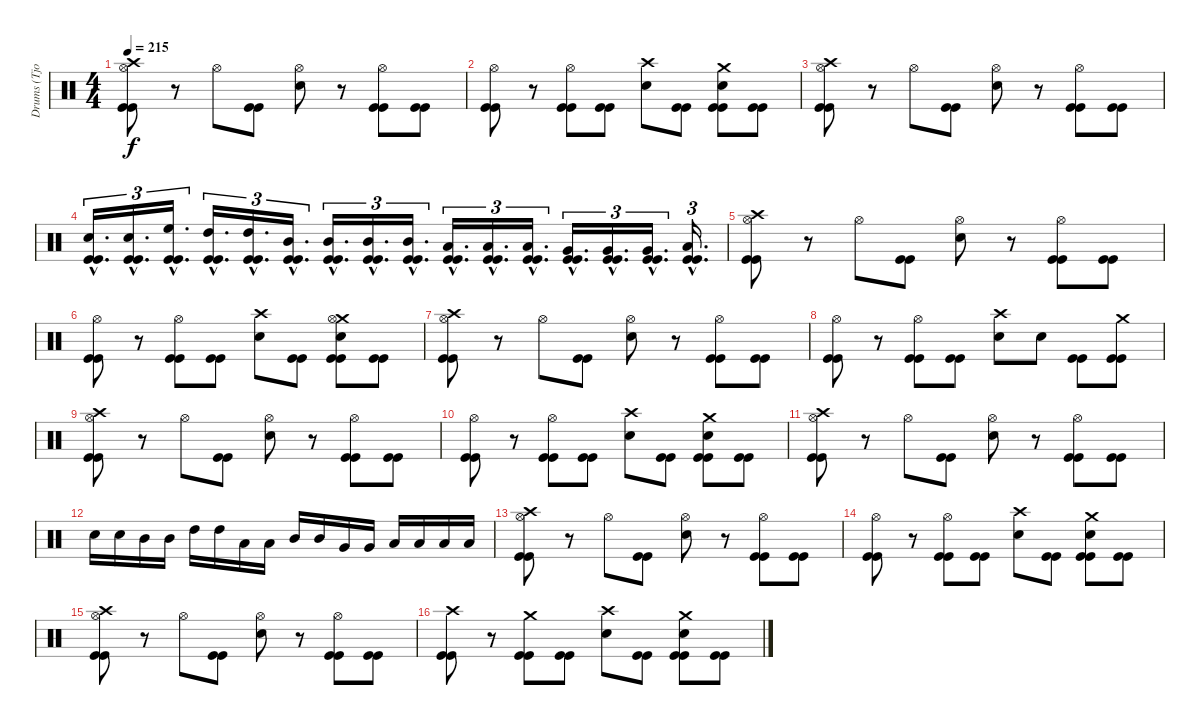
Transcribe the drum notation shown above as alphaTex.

\track ("Drums (Tjodalv)" "Drums (Tjo") {instrument percussion}
\staff {score}
\articulation defaults
\ts (4 4)
\tempo 215
\clef neutral
\ks c
("Crash high (hit)" "Hi-Hat (open)" "Kick (hit)" "Kick (hit)").8{dy f} r.8 "Hi-Hat (open)".8 ("Kick (hit)" "Kick (hit)").8 ("Snare (hit) 2" "Hi-Hat (open)").8 r.8 ("Hi-Hat (open)" "Kick (hit)" "Kick (hit)").8 ("Kick (hit)" "Kick (hit)").8 |
("Hi-Hat (open)" "Kick (hit)" "Kick (hit)").8 r.8 ("Hi-Hat (open)" "Kick (hit)" "Kick (hit)").8 ("Kick (hit)" "Kick (hit)").8 ("Crash high (hit)" "Snare (hit) 2").8 ("Kick (hit)" "Kick (hit)").8 ("Crash medium (hit)" "Snare (hit) 2" "Kick (hit)" "Kick (hit)").8 ("Kick (hit)" "Kick (hit)").8 |
("Crash high (hit)" "Hi-Hat (open)" "Kick (hit)" "Kick (hit)").8 r.8 "Hi-Hat (open)".8 ("Kick (hit)" "Kick (hit)").8 ("Snare (hit) 2" "Hi-Hat (open)").8 r.8 ("Hi-Hat (open)" "Kick (hit)" "Kick (hit)").8 ("Kick (hit)" "Kick (hit)").8 |
("Snare (hit) 2"{hac} "Kick (hit)"{hac} "Kick (hit)"{hac}).16{d tu (3 2)} ("Snare (hit) 2"{hac} "Kick (hit)"{hac} "Kick (hit)"{hac}).16{d tu (3 2)} ("High Floor Tom (hit)"{hac} "Kick (hit)"{hac} "Kick (hit)"{hac}).16{d tu (3 2)} ("High Tom (hit)"{hac} "Kick (hit)"{hac} "Kick (hit)"{hac}).16{d tu (3 2)} ("High Tom (hit)"{hac} "Kick (hit)"{hac} "Kick (hit)"{hac}).16{d tu (3 2)} ("Mid Tom (hit)"{hac} "Kick (hit)"{hac} "Kick (hit)"{hac}).16{d tu (3 2)} ("Mid Tom (hit)"{hac} "Kick (hit)"{hac} "Kick (hit)"{hac}).16{d tu (3 2)} ("Mid Tom (hit)"{hac} "Kick (hit)"{hac} "Kick (hit)"{hac}).16{d tu (3 2)} ("Mid Tom (hit)"{hac} "Kick (hit)"{hac} "Kick (hit)"{hac}).16{d tu (3 2)} ("Low Tom (hit)"{hac} "Kick (hit)"{hac} "Kick (hit)"{hac}).16{d tu (3 2)} ("Low Tom (hit)"{hac} "Kick (hit)"{hac} "Kick (hit)"{hac}).16{d tu (3 2)} ("Low Tom (hit)"{hac} "Kick (hit)"{hac} "Kick (hit)"{hac}).16{d tu (3 2)} ("Very Low Tom (hit)"{hac} "Kick (hit)"{hac} "Kick (hit)"{hac}).16{d tu (3 2)} ("Very Low Tom (hit)"{hac} "Kick (hit)"{hac} "Kick (hit)"{hac}).16{d tu (3 2)} ("Very Low Tom (hit)"{hac} "Kick (hit)"{hac} "Kick (hit)"{hac}).16{d tu (3 2)} ("Low Floor Tom (hit)"{hac} "Kick (hit)"{hac} "Kick (hit)"{hac}).16{d tu (3 2)} |
("Crash high (hit)" "Hi-Hat (open)" "Kick (hit)" "Kick (hit)").8 r.8 "Hi-Hat (open)".8 ("Kick (hit)" "Kick (hit)").8 ("Snare (hit) 2" "Hi-Hat (open)").8 r.8 ("Hi-Hat (open)" "Kick (hit)" "Kick (hit)").8 ("Kick (hit)" "Kick (hit)").8 |
("Hi-Hat (open)" "Kick (hit)" "Kick (hit)").8 r.8 ("Hi-Hat (open)" "Kick (hit)" "Kick (hit)").8 ("Kick (hit)" "Kick (hit)").8 ("Crash high (hit)" "Snare (hit) 2").8 ("Kick (hit)" "Kick (hit)").8 ("Crash medium (hit)" "Snare (hit) 2" "Hi-Hat (open)" "Kick (hit)" "Kick (hit)").8 ("Kick (hit)" "Kick (hit)").8 |
("Crash high (hit)" "Hi-Hat (open)" "Kick (hit)" "Kick (hit)").8 r.8 "Hi-Hat (open)".8 ("Kick (hit)" "Kick (hit)").8 ("Snare (hit) 2" "Hi-Hat (open)").8 r.8 ("Hi-Hat (open)" "Kick (hit)" "Kick (hit)").8 ("Kick (hit)" "Kick (hit)").8 |
("Hi-Hat (open)" "Kick (hit)" "Kick (hit)").8 r.8 ("Hi-Hat (open)" "Kick (hit)" "Kick (hit)").8 ("Kick (hit)" "Kick (hit)").8 ("Crash high (hit)" "Snare (hit) 2").8 "Snare (hit) 2".8 ("Kick (hit)" "Kick (hit)").8 ("Crash medium (hit)" "Kick (hit)" "Kick (hit)").8 |
("Crash high (hit)" "Hi-Hat (open)" "Kick (hit)" "Kick (hit)").8 r.8 "Hi-Hat (open)".8 ("Kick (hit)" "Kick (hit)").8 ("Snare (hit) 2" "Hi-Hat (open)").8 r.8 ("Hi-Hat (open)" "Kick (hit)" "Kick (hit)").8 ("Kick (hit)" "Kick (hit)").8 |
("Hi-Hat (open)" "Kick (hit)" "Kick (hit)").8 r.8 ("Hi-Hat (open)" "Kick (hit)" "Kick (hit)").8 ("Kick (hit)" "Kick (hit)").8 ("Crash high (hit)" "Snare (hit) 2").8 ("Kick (hit)" "Kick (hit)").8 ("Crash medium (hit)" "Snare (hit) 2" "Kick (hit)" "Kick (hit)").8 ("Kick (hit)" "Kick (hit)").8 |
("Crash high (hit)" "Hi-Hat (open)" "Kick (hit)" "Kick (hit)").8 r.8 "Hi-Hat (open)".8 ("Kick (hit)" "Kick (hit)").8 ("Snare (hit) 2" "Hi-Hat (open)").8 r.8 ("Hi-Hat (open)" "Kick (hit)" "Kick (hit)").8 ("Kick (hit)" "Kick (hit)").8 |
"Snare (hit) 2".16 "Snare (hit) 2".16 "Mid Tom (hit)".16 "Mid Tom (hit)".16 "High Tom (hit)".16 "High Tom (hit)".16 "Low Tom (hit)".16 "Low Tom (hit)".16 "Mid Tom (hit)".16 "Mid Tom (hit)".16 "Very Low Tom (hit)".16 "Very Low Tom (hit)".16 "Low Tom (hit)".16 "Low Tom (hit)".16 "Low Floor Tom (hit)".16 "Low Floor Tom (hit)".16 |
("Crash high (hit)" "Hi-Hat (open)" "Kick (hit)" "Kick (hit)").8 r.8 "Hi-Hat (open)".8 ("Kick (hit)" "Kick (hit)").8 ("Snare (hit) 2" "Hi-Hat (open)").8 r.8 ("Hi-Hat (open)" "Kick (hit)" "Kick (hit)").8 ("Kick (hit)" "Kick (hit)").8 |
("Hi-Hat (open)" "Kick (hit)" "Kick (hit)").8 r.8 ("Hi-Hat (open)" "Kick (hit)" "Kick (hit)").8 ("Kick (hit)" "Kick (hit)").8 ("Crash high (hit)" "Snare (hit) 2").8 ("Kick (hit)" "Kick (hit)").8 ("Crash medium (hit)" "Snare (hit) 2" "Kick (hit)" "Kick (hit)").8 ("Kick (hit)" "Kick (hit)").8 |
("Crash high (hit)" "Hi-Hat (open)" "Kick (hit)" "Kick (hit)").8 r.8 "Hi-Hat (open)".8 ("Kick (hit)" "Kick (hit)").8 ("Snare (hit) 2" "Hi-Hat (open)").8 r.8 ("Hi-Hat (open)" "Kick (hit)" "Kick (hit)").8 ("Kick (hit)" "Kick (hit)").8 |
("Crash high (hit)" "Kick (hit)" "Kick (hit)").8 r.8 ("Crash medium (hit)" "Kick (hit)" "Kick (hit)").8 ("Kick (hit)" "Kick (hit)").8 ("Crash high (hit)" "Snare (hit) 2").8 ("Kick (hit)" "Kick (hit)").8 ("Crash medium (hit)" "Snare (hit) 2" "Kick (hit)" "Kick (hit)").8 ("Kick (hit)" "Kick (hit)").8
